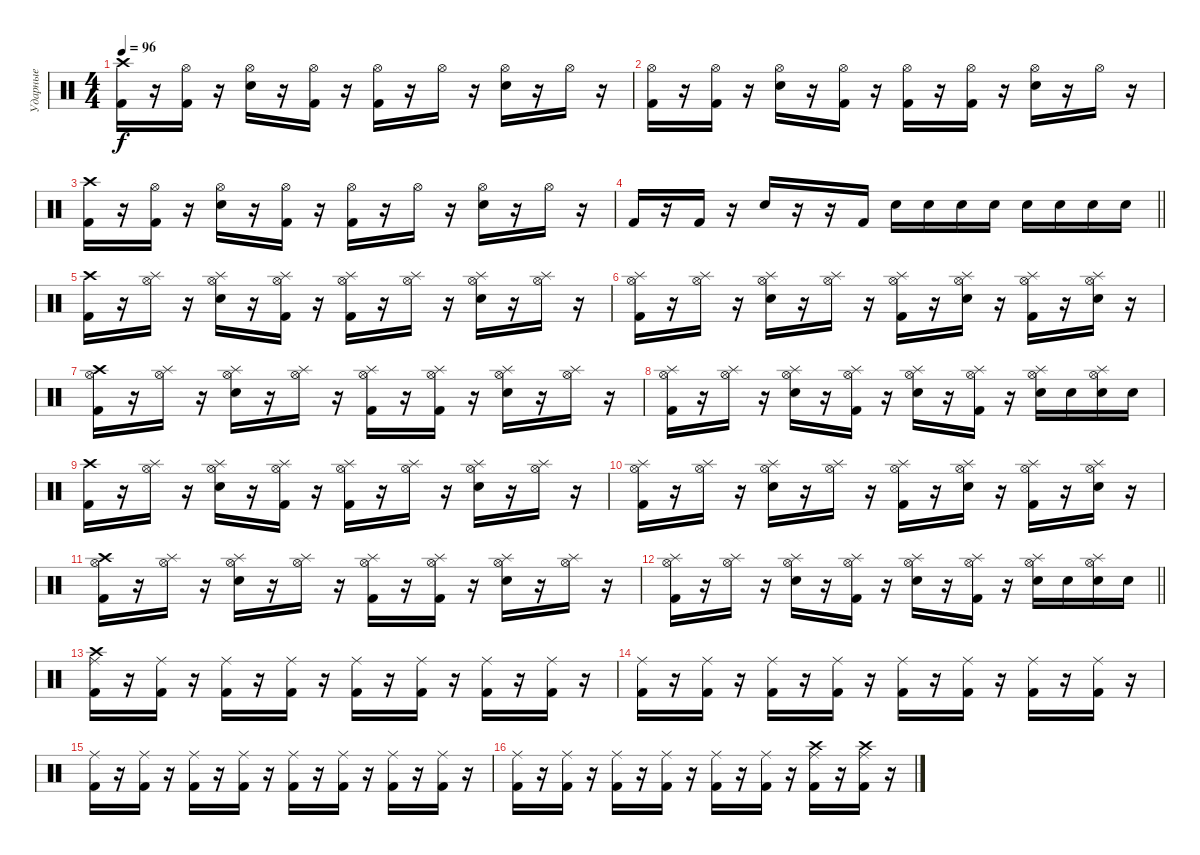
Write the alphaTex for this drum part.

\track ("Ударные" "Ударные") {instrument percussion}
\staff {score}
\articulation defaults
\ts (4 4)
\tempo 96
\clef neutral
\ks c
("Crash high (hit)" "Kick (hit) 2").16{dy f} r.16 ("Hi-Hat (open)" "Kick (hit) 2").16 r.16 ("Hi-Hat (open)" "Snare (hit) 2").16 r.16 ("Hi-Hat (open)" "Kick (hit) 2").16 r.16 ("Hi-Hat (open)" "Kick (hit) 2").16 r.16 "Hi-Hat (open)".16 r.16 ("Hi-Hat (open)" "Snare (hit) 2").16 r.16 "Hi-Hat (open)".16 r.16 |
("Hi-Hat (open)" "Kick (hit) 2").16 r.16 ("Hi-Hat (open)" "Kick (hit) 2").16 r.16 ("Hi-Hat (open)" "Snare (hit) 2").16 r.16 ("Hi-Hat (open)" "Kick (hit) 2").16 r.16 ("Hi-Hat (open)" "Kick (hit) 2").16 r.16 ("Hi-Hat (open)" "Kick (hit) 2").16 r.16 ("Hi-Hat (open)" "Snare (hit) 2").16 r.16 "Hi-Hat (open)".16 r.16 |
("Crash high (hit)" "Kick (hit) 2").16 r.16 ("Hi-Hat (open)" "Kick (hit) 2").16 r.16 ("Hi-Hat (open)" "Snare (hit) 2").16 r.16 ("Hi-Hat (open)" "Kick (hit) 2").16 r.16 ("Hi-Hat (open)" "Kick (hit) 2").16 r.16 "Hi-Hat (open)".16 r.16 ("Hi-Hat (open)" "Snare (hit) 2").16 r.16 "Hi-Hat (open)".16 r.16 |
\barLineRight lightlight "Kick (hit) 2".16
r.16 "Kick (hit) 2".16 r.16 "Snare (hit) 2".16 r.16 r.16 "Kick (hit) 2".16 "Snare (hit) 2".16 "Snare (hit) 2".16 "Snare (hit) 2".16 "Snare (hit) 2".16 "Snare (hit) 2".16 "Snare (hit) 2".16 "Snare (hit) 2".16 "Snare (hit) 2".16 |
("Crash high (hit)" "Kick (hit) 2").16 r.16 ("Hi-Hat (open)" "Splash (hit)").16 r.16 ("Hi-Hat (open)" "Splash (hit)" "Snare (hit) 2").16 r.16 ("Hi-Hat (open)" "Splash (hit)" "Kick (hit) 2").16 r.16 ("Hi-Hat (open)" "Splash (hit)" "Kick (hit) 2").16 r.16 ("Hi-Hat (open)" "Splash (hit)").16 r.16 ("Hi-Hat (open)" "Splash (hit)" "Snare (hit) 2").16 r.16 ("Hi-Hat (open)" "Splash (hit)").16 r.16 |
("Hi-Hat (open)" "Splash (hit)" "Kick (hit) 2").16 r.16 ("Hi-Hat (open)" "Splash (hit)").16 r.16 ("Hi-Hat (open)" "Splash (hit)" "Snare (hit) 2").16 r.16 ("Hi-Hat (open)" "Splash (hit)").16 r.16 ("Hi-Hat (open)" "Splash (hit)" "Kick (hit) 2").16 r.16 ("Hi-Hat (open)" "Splash (hit)" "Snare (hit) 2").16 r.16 ("Hi-Hat (open)" "Splash (hit)" "Kick (hit) 2").16 r.16 ("Hi-Hat (open)" "Splash (hit)" "Snare (hit) 2").16 r.16 |
("Crash high (hit)" "Hi-Hat (open)" "Kick (hit) 2").16 r.16 ("Hi-Hat (open)" "Splash (hit)").16 r.16 ("Hi-Hat (open)" "Splash (hit)" "Snare (hit) 2").16 r.16 ("Hi-Hat (open)" "Splash (hit)").16 r.16 ("Hi-Hat (open)" "Splash (hit)" "Kick (hit) 2").16 r.16 ("Hi-Hat (open)" "Splash (hit)" "Kick (hit) 2").16 r.16 ("Hi-Hat (open)" "Splash (hit)" "Snare (hit) 2").16 r.16 ("Hi-Hat (open)" "Splash (hit)").16 r.16 |
("Hi-Hat (open)" "Splash (hit)" "Kick (hit) 2").16 r.16 ("Hi-Hat (open)" "Splash (hit)").16 r.16 ("Hi-Hat (open)" "Splash (hit)" "Snare (hit) 2").16 r.16 ("Hi-Hat (open)" "Splash (hit)" "Kick (hit) 2").16 r.16 ("Hi-Hat (open)" "Splash (hit)" "Snare (hit) 2").16 r.16 ("Hi-Hat (open)" "Splash (hit)" "Kick (hit) 2").16 r.16 ("Hi-Hat (open)" "Splash (hit)" "Snare (hit) 2").16 "Snare (hit) 2".16 ("Hi-Hat (open)" "Splash (hit)" "Snare (hit) 2").16 "Snare (hit) 2".16 |
("Crash high (hit)" "Kick (hit) 2").16 r.16 ("Hi-Hat (open)" "Splash (hit)").16 r.16 ("Hi-Hat (open)" "Splash (hit)" "Snare (hit) 2").16 r.16 ("Hi-Hat (open)" "Splash (hit)" "Kick (hit) 2").16 r.16 ("Hi-Hat (open)" "Splash (hit)" "Kick (hit) 2").16 r.16 ("Hi-Hat (open)" "Splash (hit)").16 r.16 ("Hi-Hat (open)" "Splash (hit)" "Snare (hit) 2").16 r.16 ("Hi-Hat (open)" "Splash (hit)").16 r.16 |
("Hi-Hat (open)" "Splash (hit)" "Kick (hit) 2").16 r.16 ("Hi-Hat (open)" "Splash (hit)").16 r.16 ("Hi-Hat (open)" "Splash (hit)" "Snare (hit) 2").16 r.16 ("Hi-Hat (open)" "Splash (hit)").16 r.16 ("Hi-Hat (open)" "Splash (hit)" "Kick (hit) 2").16 r.16 ("Hi-Hat (open)" "Splash (hit)" "Snare (hit) 2").16 r.16 ("Hi-Hat (open)" "Splash (hit)" "Kick (hit) 2").16 r.16 ("Hi-Hat (open)" "Splash (hit)" "Snare (hit) 2").16 r.16 |
("Crash high (hit)" "Hi-Hat (open)" "Kick (hit) 2").16 r.16 ("Hi-Hat (open)" "Splash (hit)").16 r.16 ("Hi-Hat (open)" "Splash (hit)" "Snare (hit) 2").16 r.16 ("Hi-Hat (open)" "Splash (hit)").16 r.16 ("Hi-Hat (open)" "Splash (hit)" "Kick (hit) 2").16 r.16 ("Hi-Hat (open)" "Splash (hit)" "Kick (hit) 2").16 r.16 ("Hi-Hat (open)" "Splash (hit)" "Snare (hit) 2").16 r.16 ("Hi-Hat (open)" "Splash (hit)").16 r.16 |
\barLineRight lightlight
("Hi-Hat (open)" "Splash (hit)" "Kick (hit) 2").16 r.16 ("Hi-Hat (open)" "Splash (hit)").16 r.16 ("Hi-Hat (open)" "Splash (hit)" "Snare (hit) 2").16 r.16 ("Hi-Hat (open)" "Splash (hit)" "Kick (hit) 2").16 r.16 ("Hi-Hat (open)" "Splash (hit)" "Snare (hit) 2").16 r.16 ("Hi-Hat (open)" "Splash (hit)" "Kick (hit) 2").16 r.16 ("Hi-Hat (open)" "Splash (hit)" "Snare (hit) 2").16 "Snare (hit) 2".16 ("Hi-Hat (open)" "Splash (hit)" "Snare (hit) 2").16 "Snare (hit) 2".16 |
("Crash high (hit)" "Ride (middle)" "Kick (hit) 2").16 r.16 ("Ride (middle)" "Kick (hit) 2").16 r.16 ("Ride (middle)" "Kick (hit) 2").16 r.16 ("Ride (middle)" "Kick (hit) 2").16 r.16 ("Ride (middle)" "Kick (hit) 2").16 r.16 ("Ride (middle)" "Kick (hit) 2").16 r.16 ("Ride (middle)" "Kick (hit) 2").16 r.16 ("Ride (middle)" "Kick (hit) 2").16 r.16 |
("Ride (middle)" "Kick (hit) 2").16 r.16 ("Ride (middle)" "Kick (hit) 2").16 r.16 ("Ride (middle)" "Kick (hit) 2").16 r.16 ("Ride (middle)" "Kick (hit) 2").16 r.16 ("Ride (middle)" "Kick (hit) 2").16 r.16 ("Ride (middle)" "Kick (hit) 2").16 r.16 ("Ride (middle)" "Kick (hit) 2").16 r.16 ("Ride (middle)" "Kick (hit) 2").16 r.16 |
("Ride (middle)" "Kick (hit) 2").16 r.16 ("Ride (middle)" "Kick (hit) 2").16 r.16 ("Ride (middle)" "Kick (hit) 2").16 r.16 ("Ride (middle)" "Kick (hit) 2").16 r.16 ("Ride (middle)" "Kick (hit) 2").16 r.16 ("Ride (middle)" "Kick (hit) 2").16 r.16 ("Ride (middle)" "Kick (hit) 2").16 r.16 ("Ride (middle)" "Kick (hit) 2").16 r.16 |
("Ride (middle)" "Kick (hit) 2").16 r.16 ("Ride (middle)" "Kick (hit) 2").16 r.16 ("Ride (middle)" "Kick (hit) 2").16 r.16 ("Ride (middle)" "Kick (hit) 2").16 r.16 ("Ride (middle)" "Kick (hit) 2").16 r.16 ("Ride (middle)" "Kick (hit) 2").16 r.16 ("Crash high (hit)" "Ride (middle)" "Kick (hit) 2").16 r.16 ("Crash high (hit)" "Ride (middle)" "Kick (hit) 2").16 r.16
